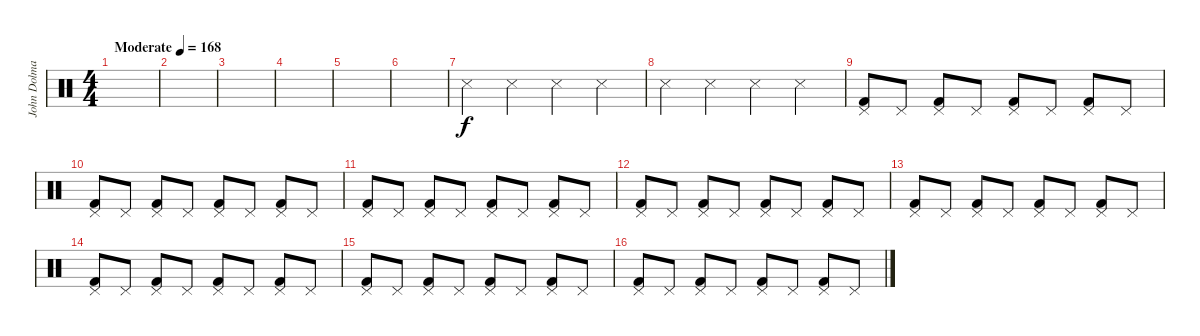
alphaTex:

\track ("John Dolmayan" "John Dolma") {instrument percussion}
\staff {score}
\articulation defaults
\ts (4 4)
\tempo (168 "Moderate")
\clef neutral
\ks c
|
|
|
|
|
|
"Snare (side stick) 3".4 "Snare (side stick) 3".4 "Snare (side stick) 3".4 "Snare (side stick) 3".4 |
"Snare (side stick) 3".4 "Snare (side stick) 3".4 "Snare (side stick) 3".4 "Snare (side stick) 3".4 |
("Pedal Hi-Hat (hit)" "Kick (hit) 2").8 "Pedal Hi-Hat (hit)".8 ("Pedal Hi-Hat (hit)" "Kick (hit) 2").8 "Pedal Hi-Hat (hit)".8 ("Pedal Hi-Hat (hit)" "Kick (hit) 2").8 "Pedal Hi-Hat (hit)".8 ("Pedal Hi-Hat (hit)" "Kick (hit) 2").8 "Pedal Hi-Hat (hit)".8 |
("Pedal Hi-Hat (hit)" "Kick (hit) 2").8 "Pedal Hi-Hat (hit)".8 ("Pedal Hi-Hat (hit)" "Kick (hit) 2").8 "Pedal Hi-Hat (hit)".8 ("Pedal Hi-Hat (hit)" "Kick (hit) 2").8 "Pedal Hi-Hat (hit)".8 ("Pedal Hi-Hat (hit)" "Kick (hit) 2").8 "Pedal Hi-Hat (hit)".8 |
("Pedal Hi-Hat (hit)" "Kick (hit) 2").8 "Pedal Hi-Hat (hit)".8 ("Pedal Hi-Hat (hit)" "Kick (hit) 2").8 "Pedal Hi-Hat (hit)".8 ("Pedal Hi-Hat (hit)" "Kick (hit) 2").8 "Pedal Hi-Hat (hit)".8 ("Pedal Hi-Hat (hit)" "Kick (hit) 2").8 "Pedal Hi-Hat (hit)".8 |
("Pedal Hi-Hat (hit)" "Kick (hit) 2").8 "Pedal Hi-Hat (hit)".8 ("Pedal Hi-Hat (hit)" "Kick (hit) 2").8 "Pedal Hi-Hat (hit)".8 ("Pedal Hi-Hat (hit)" "Kick (hit) 2").8 "Pedal Hi-Hat (hit)".8 ("Pedal Hi-Hat (hit)" "Kick (hit) 2").8 "Pedal Hi-Hat (hit)".8 |
("Pedal Hi-Hat (hit)" "Kick (hit) 2").8 "Pedal Hi-Hat (hit)".8 ("Pedal Hi-Hat (hit)" "Kick (hit) 2").8 "Pedal Hi-Hat (hit)".8 ("Pedal Hi-Hat (hit)" "Kick (hit) 2").8 "Pedal Hi-Hat (hit)".8 ("Pedal Hi-Hat (hit)" "Kick (hit) 2").8 "Pedal Hi-Hat (hit)".8 |
("Pedal Hi-Hat (hit)" "Kick (hit) 2").8 "Pedal Hi-Hat (hit)".8 ("Pedal Hi-Hat (hit)" "Kick (hit) 2").8 "Pedal Hi-Hat (hit)".8 ("Pedal Hi-Hat (hit)" "Kick (hit) 2").8 "Pedal Hi-Hat (hit)".8 ("Pedal Hi-Hat (hit)" "Kick (hit) 2").8 "Pedal Hi-Hat (hit)".8 |
("Pedal Hi-Hat (hit)" "Kick (hit) 2").8 "Pedal Hi-Hat (hit)".8 ("Pedal Hi-Hat (hit)" "Kick (hit) 2").8 "Pedal Hi-Hat (hit)".8 ("Pedal Hi-Hat (hit)" "Kick (hit) 2").8 "Pedal Hi-Hat (hit)".8 ("Pedal Hi-Hat (hit)" "Kick (hit) 2").8 "Pedal Hi-Hat (hit)".8 |
("Pedal Hi-Hat (hit)" "Kick (hit) 2").8 "Pedal Hi-Hat (hit)".8 ("Pedal Hi-Hat (hit)" "Kick (hit) 2").8 "Pedal Hi-Hat (hit)".8 ("Pedal Hi-Hat (hit)" "Kick (hit) 2").8 "Pedal Hi-Hat (hit)".8 ("Pedal Hi-Hat (hit)" "Kick (hit) 2").8 "Pedal Hi-Hat (hit)".8
